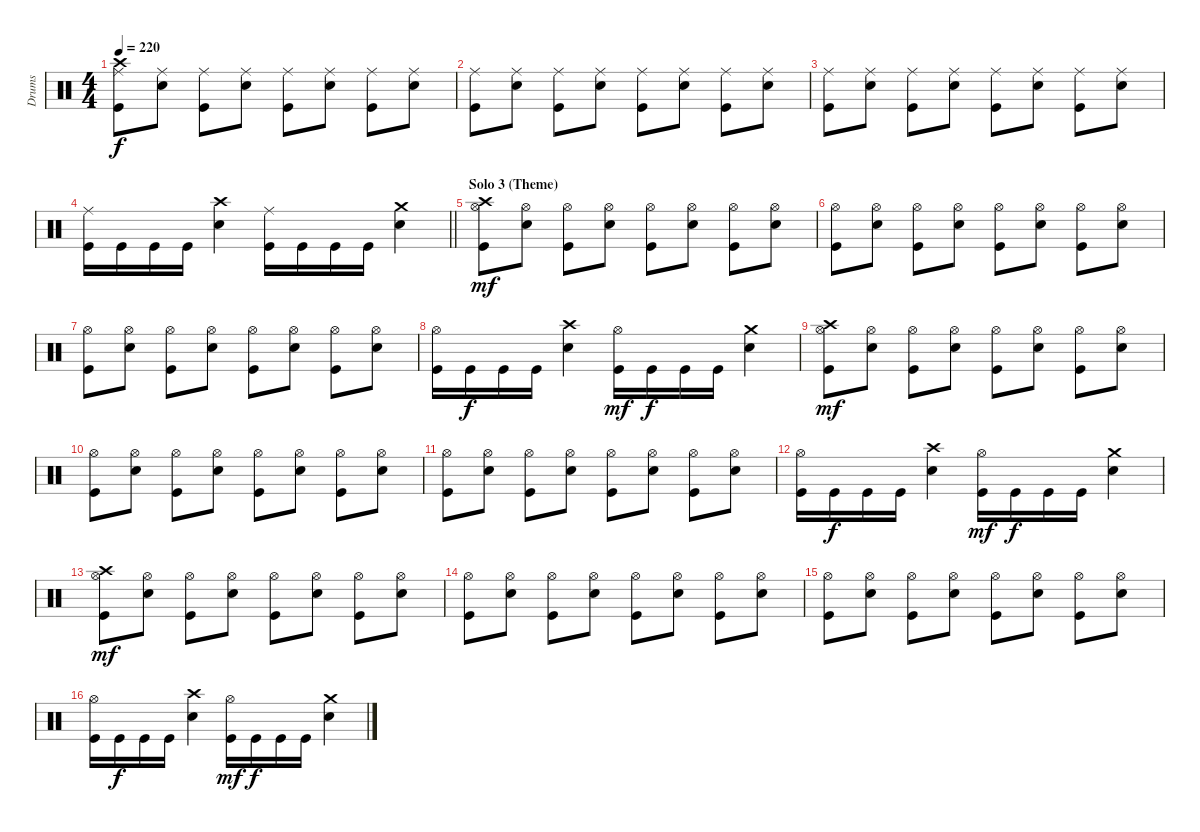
\track ("Drums" "Drums") {instrument percussion}
\staff {score}
\articulation defaults
\ts (4 4)
\tempo 220
\clef neutral
\ks c
("Crash high (hit)" "Ride (middle)" "Kick (hit)").8{dy f} ("Ride (middle)" "Electric Snare (hit)").8 ("Ride (middle)" "Kick (hit)").8 ("Ride (middle)" "Electric Snare (hit)").8 ("Ride (middle)" "Kick (hit)").8 ("Ride (middle)" "Electric Snare (hit)").8 ("Ride (middle)" "Kick (hit)").8 ("Ride (middle)" "Electric Snare (hit)").8 |
("Ride (middle)" "Kick (hit)").8 ("Ride (middle)" "Electric Snare (hit)").8 ("Ride (middle)" "Kick (hit)").8 ("Ride (middle)" "Electric Snare (hit)").8 ("Ride (middle)" "Kick (hit)").8 ("Ride (middle)" "Electric Snare (hit)").8 ("Ride (middle)" "Kick (hit)").8 ("Ride (middle)" "Electric Snare (hit)").8 |
("Ride (middle)" "Kick (hit)").8 ("Ride (middle)" "Electric Snare (hit)").8 ("Ride (middle)" "Kick (hit)").8 ("Ride (middle)" "Electric Snare (hit)").8 ("Ride (middle)" "Kick (hit)").8 ("Ride (middle)" "Electric Snare (hit)").8 ("Ride (middle)" "Kick (hit)").8 ("Ride (middle)" "Electric Snare (hit)").8 |
\barLineRight lightlight
("Ride (middle)" "Kick (hit)").16 "Kick (hit)".16 "Kick (hit)".16 "Kick (hit)".16 ("Crash high (hit)" "Electric Snare (hit)").4 ("Ride (middle)" "Kick (hit)").16 "Kick (hit)".16 "Kick (hit)".16 "Kick (hit)".16 ("Crash medium (hit)" "Electric Snare (hit)").4 |
\section ("" "Solo 3 (Theme)")
("Crash high (hit)" "Hi-Hat (open)" "Kick (hit)").8{dy mf} ("Hi-Hat (open)" "Electric Snare (hit)").8 ("Hi-Hat (open)" "Kick (hit)").8 ("Hi-Hat (open)" "Electric Snare (hit)").8 ("Hi-Hat (open)" "Kick (hit)").8 ("Hi-Hat (open)" "Electric Snare (hit)").8 ("Hi-Hat (open)" "Kick (hit)").8 ("Hi-Hat (open)" "Electric Snare (hit)").8 |
("Hi-Hat (open)" "Kick (hit)").8 ("Hi-Hat (open)" "Electric Snare (hit)").8 ("Hi-Hat (open)" "Kick (hit)").8 ("Hi-Hat (open)" "Electric Snare (hit)").8 ("Hi-Hat (open)" "Kick (hit)").8 ("Hi-Hat (open)" "Electric Snare (hit)").8 ("Hi-Hat (open)" "Kick (hit)").8 ("Hi-Hat (open)" "Electric Snare (hit)").8 |
("Hi-Hat (open)" "Kick (hit)").8 ("Hi-Hat (open)" "Electric Snare (hit)").8 ("Hi-Hat (open)" "Kick (hit)").8 ("Hi-Hat (open)" "Electric Snare (hit)").8 ("Hi-Hat (open)" "Kick (hit)").8 ("Hi-Hat (open)" "Electric Snare (hit)").8 ("Hi-Hat (open)" "Kick (hit)").8 ("Hi-Hat (open)" "Electric Snare (hit)").8 |
("Hi-Hat (open)" "Kick (hit)").16 "Kick (hit)".16{dy f} "Kick (hit)".16 "Kick (hit)".16 ("Crash high (hit)" "Electric Snare (hit)").4 ("Hi-Hat (open)" "Kick (hit)").16{dy mf} "Kick (hit)".16{dy f} "Kick (hit)".16 "Kick (hit)".16 ("Crash medium (hit)" "Electric Snare (hit)").4 |
("Crash high (hit)" "Hi-Hat (open)" "Kick (hit)").8{dy mf} ("Hi-Hat (open)" "Electric Snare (hit)").8 ("Hi-Hat (open)" "Kick (hit)").8 ("Hi-Hat (open)" "Electric Snare (hit)").8 ("Hi-Hat (open)" "Kick (hit)").8 ("Hi-Hat (open)" "Electric Snare (hit)").8 ("Hi-Hat (open)" "Kick (hit)").8 ("Hi-Hat (open)" "Electric Snare (hit)").8 |
("Hi-Hat (open)" "Kick (hit)").8 ("Hi-Hat (open)" "Electric Snare (hit)").8 ("Hi-Hat (open)" "Kick (hit)").8 ("Hi-Hat (open)" "Electric Snare (hit)").8 ("Hi-Hat (open)" "Kick (hit)").8 ("Hi-Hat (open)" "Electric Snare (hit)").8 ("Hi-Hat (open)" "Kick (hit)").8 ("Hi-Hat (open)" "Electric Snare (hit)").8 |
("Hi-Hat (open)" "Kick (hit)").8 ("Hi-Hat (open)" "Electric Snare (hit)").8 ("Hi-Hat (open)" "Kick (hit)").8 ("Hi-Hat (open)" "Electric Snare (hit)").8 ("Hi-Hat (open)" "Kick (hit)").8 ("Hi-Hat (open)" "Electric Snare (hit)").8 ("Hi-Hat (open)" "Kick (hit)").8 ("Hi-Hat (open)" "Electric Snare (hit)").8 |
("Hi-Hat (open)" "Kick (hit)").16 "Kick (hit)".16{dy f} "Kick (hit)".16 "Kick (hit)".16 ("Crash high (hit)" "Electric Snare (hit)").4 ("Hi-Hat (open)" "Kick (hit)").16{dy mf} "Kick (hit)".16{dy f} "Kick (hit)".16 "Kick (hit)".16 ("Crash medium (hit)" "Electric Snare (hit)").4 |
("Crash high (hit)" "Hi-Hat (open)" "Kick (hit)").8{dy mf} ("Hi-Hat (open)" "Electric Snare (hit)").8 ("Hi-Hat (open)" "Kick (hit)").8 ("Hi-Hat (open)" "Electric Snare (hit)").8 ("Hi-Hat (open)" "Kick (hit)").8 ("Hi-Hat (open)" "Electric Snare (hit)").8 ("Hi-Hat (open)" "Kick (hit)").8 ("Hi-Hat (open)" "Electric Snare (hit)").8 |
("Hi-Hat (open)" "Kick (hit)").8 ("Hi-Hat (open)" "Electric Snare (hit)").8 ("Hi-Hat (open)" "Kick (hit)").8 ("Hi-Hat (open)" "Electric Snare (hit)").8 ("Hi-Hat (open)" "Kick (hit)").8 ("Hi-Hat (open)" "Electric Snare (hit)").8 ("Hi-Hat (open)" "Kick (hit)").8 ("Hi-Hat (open)" "Electric Snare (hit)").8 |
("Hi-Hat (open)" "Kick (hit)").8 ("Hi-Hat (open)" "Electric Snare (hit)").8 ("Hi-Hat (open)" "Kick (hit)").8 ("Hi-Hat (open)" "Electric Snare (hit)").8 ("Hi-Hat (open)" "Kick (hit)").8 ("Hi-Hat (open)" "Electric Snare (hit)").8 ("Hi-Hat (open)" "Kick (hit)").8 ("Hi-Hat (open)" "Electric Snare (hit)").8 |
("Hi-Hat (open)" "Kick (hit)").16 "Kick (hit)".16{dy f} "Kick (hit)".16 "Kick (hit)".16 ("Crash high (hit)" "Electric Snare (hit)").4 ("Hi-Hat (open)" "Kick (hit)").16{dy mf} "Kick (hit)".16{dy f} "Kick (hit)".16 "Kick (hit)".16 ("Crash medium (hit)" "Electric Snare (hit)").4
